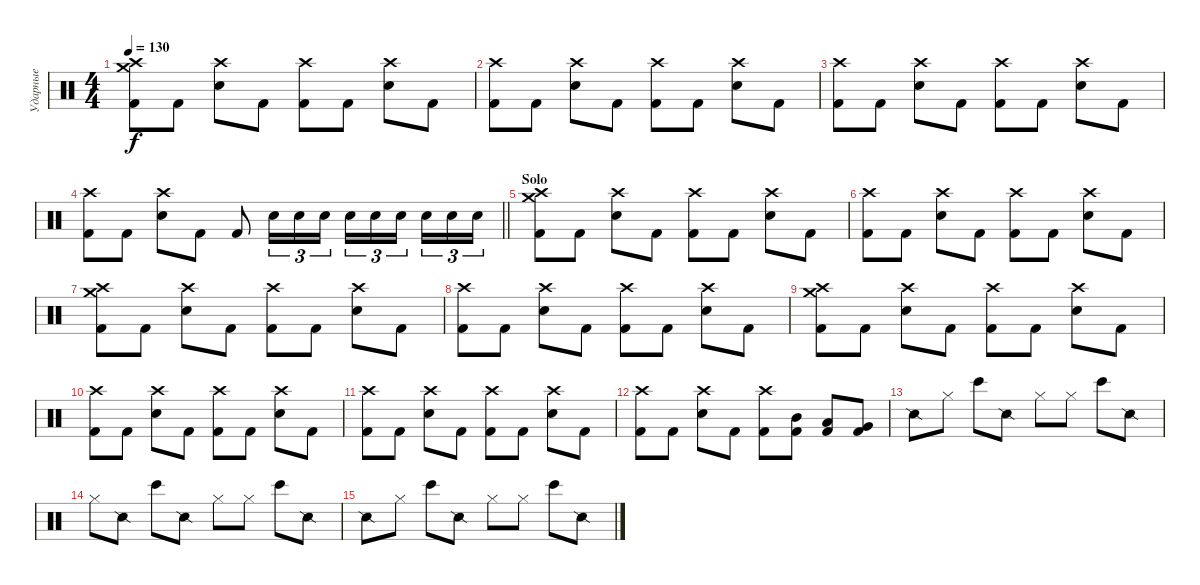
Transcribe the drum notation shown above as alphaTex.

\track ("Ударные" "Ударные") {instrument percussion}
\staff {score}
\articulation defaults
\ts (4 4)
\tempo 130
\clef neutral
\ks c
("Kick (hit) 2" "Crash medium (hit)" "Crash high (hit)").8{dy f} "Kick (hit) 2".8 ("Electric Snare (hit)" "Crash high (hit)").8 "Kick (hit) 2".8 ("Kick (hit) 2" "Crash high (hit)").8 "Kick (hit) 2".8 ("Electric Snare (hit)" "Crash high (hit)").8 "Kick (hit) 2".8 |
("Kick (hit) 2" "Crash high (hit)").8 "Kick (hit) 2".8 ("Electric Snare (hit)" "Crash high (hit)").8 "Kick (hit) 2".8 ("Kick (hit) 2" "Crash high (hit)").8 "Kick (hit) 2".8 ("Electric Snare (hit)" "Crash high (hit)").8 "Kick (hit) 2".8 |
("Kick (hit) 2" "Crash high (hit)").8 "Kick (hit) 2".8 ("Electric Snare (hit)" "Crash high (hit)").8 "Kick (hit) 2".8 ("Kick (hit) 2" "Crash high (hit)").8 "Kick (hit) 2".8 ("Electric Snare (hit)" "Crash high (hit)").8 "Kick (hit) 2".8 |
\barLineRight lightlight
("Kick (hit) 2" "Crash high (hit)").8 "Kick (hit) 2".8 ("Electric Snare (hit)" "Crash high (hit)").8 "Kick (hit) 2".8 "Kick (hit) 2".8 "Electric Snare (hit)".16{tu (3 2)} "Electric Snare (hit)".16{tu (3 2)} "Electric Snare (hit)".16{tu (3 2)} "Electric Snare (hit)".16{tu (3 2)} "Electric Snare (hit)".16{tu (3 2)} "Electric Snare (hit)".16{tu (3 2) beam splitsecondary} "Electric Snare (hit)".16{tu (3 2)} "Electric Snare (hit)".16{tu (3 2)} "Electric Snare (hit)".16{tu (3 2)} |
\section ("" "Solo")
("Kick (hit) 2" "Crash medium (hit)" "Crash high (hit)").8 "Kick (hit) 2".8 ("Electric Snare (hit)" "Crash high (hit)").8 "Kick (hit) 2".8 ("Kick (hit) 2" "Crash high (hit)").8 "Kick (hit) 2".8 ("Electric Snare (hit)" "Crash high (hit)").8 "Kick (hit) 2".8 |
("Kick (hit) 2" "Crash high (hit)").8 "Kick (hit) 2".8 ("Electric Snare (hit)" "Crash high (hit)").8 "Kick (hit) 2".8 ("Kick (hit) 2" "Crash high (hit)").8 "Kick (hit) 2".8 ("Electric Snare (hit)" "Crash high (hit)").8 "Kick (hit) 2".8 |
("Kick (hit) 2" "Crash medium (hit)" "Crash high (hit)").8 "Kick (hit) 2".8 ("Electric Snare (hit)" "Crash high (hit)").8 "Kick (hit) 2".8 ("Kick (hit) 2" "Crash high (hit)").8 "Kick (hit) 2".8 ("Electric Snare (hit)" "Crash high (hit)").8 "Kick (hit) 2".8 |
("Kick (hit) 2" "Crash high (hit)").8 "Kick (hit) 2".8 ("Electric Snare (hit)" "Crash high (hit)").8 "Kick (hit) 2".8 ("Kick (hit) 2" "Crash high (hit)").8 "Kick (hit) 2".8 ("Electric Snare (hit)" "Crash high (hit)").8 "Kick (hit) 2".8 |
("Kick (hit) 2" "Crash medium (hit)" "Crash high (hit)").8 "Kick (hit) 2".8 ("Electric Snare (hit)" "Crash high (hit)").8 "Kick (hit) 2".8 ("Kick (hit) 2" "Crash high (hit)").8 "Kick (hit) 2".8 ("Electric Snare (hit)" "Crash high (hit)").8 "Kick (hit) 2".8 |
("Kick (hit) 2" "Crash high (hit)").8 "Kick (hit) 2".8 ("Electric Snare (hit)" "Crash high (hit)").8 "Kick (hit) 2".8 ("Kick (hit) 2" "Crash high (hit)").8 "Kick (hit) 2".8 ("Electric Snare (hit)" "Crash high (hit)").8 "Kick (hit) 2".8 |
("Kick (hit) 2" "Crash high (hit)").8 "Kick (hit) 2".8 ("Electric Snare (hit)" "Crash high (hit)").8 "Kick (hit) 2".8 ("Kick (hit) 2" "Crash high (hit)").8 "Kick (hit) 2".8 ("Electric Snare (hit)" "Crash high (hit)").8 "Kick (hit) 2".8 |
("Kick (hit) 2" "Crash high (hit)").8 "Kick (hit) 2".8 ("Electric Snare (hit)" "Crash high (hit)").8 "Kick (hit) 2".8 ("Kick (hit) 2" "Crash high (hit)").8 ("Kick (hit) 2" "Mid Tom (hit)").8 ("Kick (hit) 2" "Low Tom (hit)").8 ("Kick (hit) 2" "Very Low Tom (hit)").8 |
"Snare (side stick) 2".8 "Hi-Hat (closed)".8 "Bongo High (hit)".8 "Snare (side stick) 2".8 "Hi-Hat (closed)".8 "Hi-Hat (closed)".8 "Bongo High (hit)".8 "Snare (side stick) 2".8 |
"Hi-Hat (closed)".8 "Snare (side stick) 2".8 "Bongo High (hit)".8 "Snare (side stick) 2".8 "Hi-Hat (closed)".8 "Hi-Hat (closed)".8 "Bongo High (hit)".8 "Snare (side stick) 2".8 |
"Snare (side stick) 2".8 "Hi-Hat (closed)".8 "Bongo High (hit)".8 "Snare (side stick) 2".8 "Hi-Hat (closed)".8 "Hi-Hat (closed)".8 "Bongo High (hit)".8 "Snare (side stick) 2".8
